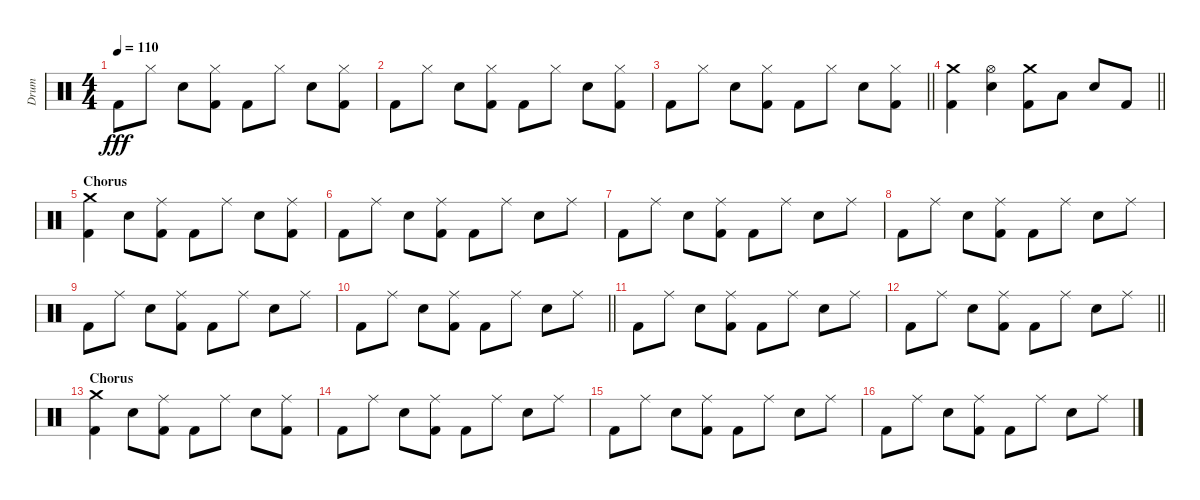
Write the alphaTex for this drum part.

\track ("Drum" "Drum") {instrument percussion}
\staff {score}
\articulation defaults
\ts (4 4)
\tempo 110
\clef neutral
\ks c "Kick (hit) 2".8{dy fff} "Hi-Hat (closed)".8 "Electric Snare (hit)".8
("Hi-Hat (closed)" "Kick (hit) 2").8 "Kick (hit) 2".8 "Hi-Hat (closed)".8 "Electric Snare (hit)".8 ("Hi-Hat (closed)" "Kick (hit) 2").8 |
"Kick (hit) 2".8 "Hi-Hat (closed)".8 "Electric Snare (hit)".8 ("Hi-Hat (closed)" "Kick (hit) 2").8 "Kick (hit) 2".8 "Hi-Hat (closed)".8 "Electric Snare (hit)".8 ("Hi-Hat (closed)" "Kick (hit) 2").8 |
\barLineRight lightlight "Kick (hit) 2".8 "Hi-Hat (closed)".8 "Electric Snare (hit)".8
("Hi-Hat (closed)" "Kick (hit) 2").8 "Kick (hit) 2".8 "Hi-Hat (closed)".8 "Electric Snare (hit)".8 ("Hi-Hat (closed)" "Kick (hit) 2").8 |
\barLineRight lightlight
("Crash medium (hit)" "Kick (hit) 2").4 ("Hi-Hat (open)" "Electric Snare (hit)").4 ("Crash medium (hit)" "Kick (hit) 2").8 "Low Tom (hit)".8 "Electric Snare (hit)".8 "Kick (hit) 2".8 |
\section ("" "Chorus")
("Crash medium (hit)" "Kick (hit) 2").4 "Electric Snare (hit)".8 ("Ride (middle)" "Kick (hit) 2").8 "Kick (hit) 2".8 "Ride (middle)".8 "Electric Snare (hit)".8 ("Ride (middle)" "Kick (hit) 2").8 |
"Kick (hit) 2".8 "Ride (middle)".8 "Electric Snare (hit)".8 ("Ride (middle)" "Kick (hit) 2").8 "Kick (hit) 2".8 "Ride (middle)".8 "Electric Snare (hit)".8 "Ride (middle)".8 |
"Kick (hit) 2".8 "Ride (middle)".8 "Electric Snare (hit)".8 ("Ride (middle)" "Kick (hit) 2").8 "Kick (hit) 2".8 "Ride (middle)".8 "Electric Snare (hit)".8 "Ride (middle)".8 |
"Kick (hit) 2".8 "Ride (middle)".8 "Electric Snare (hit)".8 ("Ride (middle)" "Kick (hit) 2").8 "Kick (hit) 2".8 "Ride (middle)".8 "Electric Snare (hit)".8 "Ride (middle)".8 |
"Kick (hit) 2".8 "Ride (middle)".8 "Electric Snare (hit)".8 ("Ride (middle)" "Kick (hit) 2").8 "Kick (hit) 2".8 "Ride (middle)".8 "Electric Snare (hit)".8 "Ride (middle)".8 |
\barLineRight lightlight "Kick (hit) 2".8 "Ride (middle)".8 "Electric Snare (hit)".8
("Ride (middle)" "Kick (hit) 2").8 "Kick (hit) 2".8 "Ride (middle)".8 "Electric Snare (hit)".8 "Ride (middle)".8 |
"Kick (hit) 2".8 "Ride (middle)".8 "Electric Snare (hit)".8 ("Ride (middle)" "Kick (hit) 2").8 "Kick (hit) 2".8 "Ride (middle)".8 "Electric Snare (hit)".8 "Ride (middle)".8 |
\barLineRight lightlight "Kick (hit) 2".8 "Ride (middle)".8 "Electric Snare (hit)".8
("Ride (middle)" "Kick (hit) 2").8 "Kick (hit) 2".8 "Ride (middle)".8 "Electric Snare (hit)".8 "Ride (middle)".8 |
\section ("" "Chorus")
("Crash medium (hit)" "Kick (hit) 2").4 "Electric Snare (hit)".8 ("Ride (middle)" "Kick (hit) 2").8 "Kick (hit) 2".8 "Ride (middle)".8 "Electric Snare (hit)".8 ("Ride (middle)" "Kick (hit) 2").8 |
"Kick (hit) 2".8 "Ride (middle)".8 "Electric Snare (hit)".8 ("Ride (middle)" "Kick (hit) 2").8 "Kick (hit) 2".8 "Ride (middle)".8 "Electric Snare (hit)".8 "Ride (middle)".8 |
"Kick (hit) 2".8 "Ride (middle)".8 "Electric Snare (hit)".8 ("Ride (middle)" "Kick (hit) 2").8 "Kick (hit) 2".8 "Ride (middle)".8 "Electric Snare (hit)".8 "Ride (middle)".8 |
"Kick (hit) 2".8 "Ride (middle)".8 "Electric Snare (hit)".8 ("Ride (middle)" "Kick (hit) 2").8 "Kick (hit) 2".8 "Ride (middle)".8 "Electric Snare (hit)".8 "Ride (middle)".8
